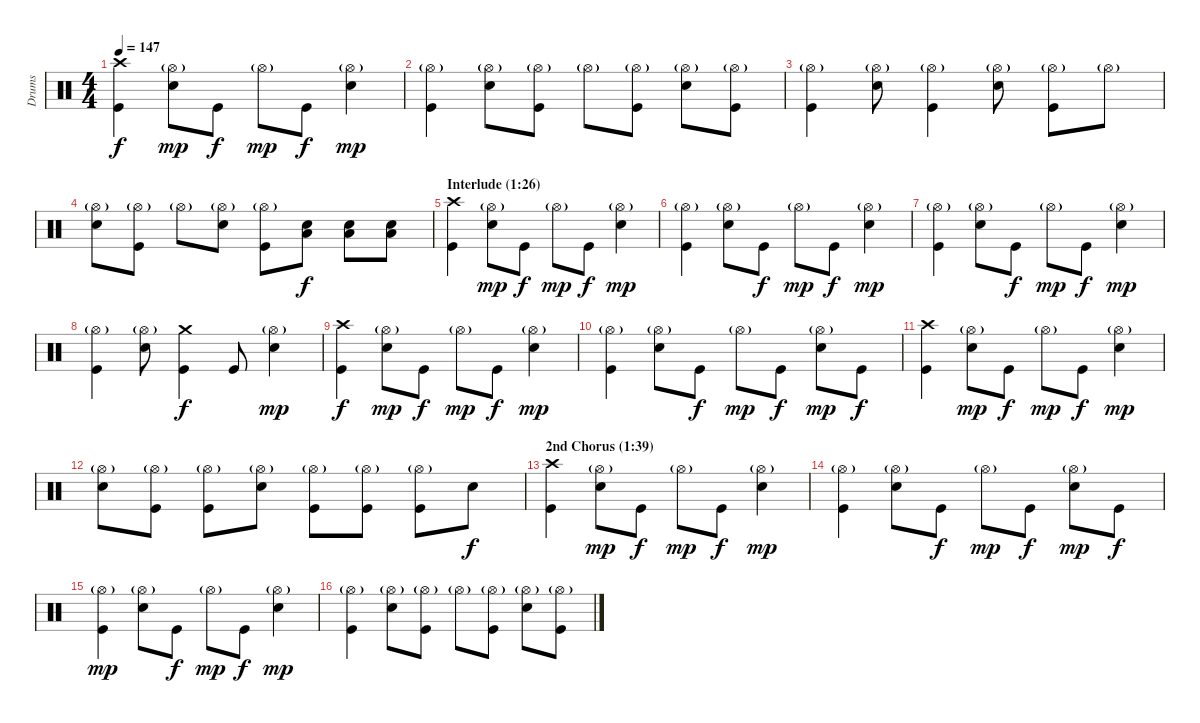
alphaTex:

\track ("Drums" "Drums") {instrument percussion}
\staff {score}
\articulation defaults
\ts (4 4)
\tempo 147
\clef neutral
\ks c
("Crash high (hit)" "Kick (hit)").4{dy f} ("Hi-Hat (open)"{g} "Snare (hit) 2").8{dy mp} "Kick (hit)".8{dy f} "Hi-Hat (open)"{g}.8{dy mp} "Kick (hit)".8{dy f} ("Hi-Hat (open)"{g} "Snare (hit) 2").4{dy mp} |
("Hi-Hat (open)"{g} "Kick (hit)").4 ("Hi-Hat (open)"{g} "Snare (hit) 2").8 ("Hi-Hat (open)"{g} "Kick (hit)").8 "Hi-Hat (open)"{g}.8 ("Hi-Hat (open)"{g} "Kick (hit)").8 ("Hi-Hat (open)"{g} "Snare (hit) 2").8 ("Hi-Hat (open)"{g} "Kick (hit)").8 |
("Hi-Hat (open)"{g} "Kick (hit)").4 ("Hi-Hat (open)"{g} "Snare (hit) 2").8 ("Hi-Hat (open)"{g} "Kick (hit)").4 ("Hi-Hat (open)"{g} "Snare (hit) 2").8 ("Hi-Hat (open)"{g} "Kick (hit)").8 "Hi-Hat (open)"{g}.8 |
("Hi-Hat (open)"{g} "Snare (hit) 2").8 ("Hi-Hat (open)"{g} "Kick (hit)").8 "Hi-Hat (open)"{g}.8 ("Hi-Hat (open)"{g} "Snare (hit) 2").8 ("Hi-Hat (open)"{g} "Kick (hit)").8 ("Snare (hit) 2" "Low Floor Tom (hit)").8{dy f} ("Snare (hit) 2" "Low Floor Tom (hit)").8 ("Snare (hit) 2" "Low Floor Tom (hit)").8 |
\section ("" "Interlude (1:26)")
("Crash high (hit)" "Kick (hit)").4 ("Hi-Hat (open)"{g} "Snare (hit) 2").8{dy mp} "Kick (hit)".8{dy f} "Hi-Hat (open)"{g}.8{dy mp} "Kick (hit)".8{dy f} ("Hi-Hat (open)"{g} "Snare (hit) 2").4{dy mp} |
("Hi-Hat (open)"{g} "Kick (hit)").4 ("Hi-Hat (open)"{g} "Snare (hit) 2").8 "Kick (hit)".8{dy f} "Hi-Hat (open)"{g}.8{dy mp} "Kick (hit)".8{dy f} ("Hi-Hat (open)"{g} "Snare (hit) 2").4{dy mp} |
("Hi-Hat (open)"{g} "Kick (hit)").4 ("Hi-Hat (open)"{g} "Snare (hit) 2").8 "Kick (hit)".8{dy f} "Hi-Hat (open)"{g}.8{dy mp} "Kick (hit)".8{dy f} ("Hi-Hat (open)"{g} "Snare (hit) 2").4{dy mp} |
("Hi-Hat (open)"{g} "Kick (hit)").4 ("Hi-Hat (open)"{g} "Snare (hit) 2").8 ("Crash medium (hit)" "Kick (hit)").4{dy f} "Kick (hit)".8 ("Hi-Hat (open)"{g} "Snare (hit) 2").4{dy mp} |
("Crash high (hit)" "Kick (hit)").4{dy f} ("Hi-Hat (open)"{g} "Snare (hit) 2").8{dy mp} "Kick (hit)".8{dy f} "Hi-Hat (open)"{g}.8{dy mp} "Kick (hit)".8{dy f} ("Hi-Hat (open)"{g} "Snare (hit) 2").4{dy mp} |
("Hi-Hat (open)"{g} "Kick (hit)").4 ("Hi-Hat (open)"{g} "Snare (hit) 2").8 "Kick (hit)".8{dy f} "Hi-Hat (open)"{g}.8{dy mp} "Kick (hit)".8{dy f} ("Hi-Hat (open)"{g} "Snare (hit) 2").8{dy mp} "Kick (hit)".8{dy f} |
("Crash high (hit)" "Kick (hit)").4 ("Hi-Hat (open)"{g} "Snare (hit) 2").8{dy mp} "Kick (hit)".8{dy f} "Hi-Hat (open)"{g}.8{dy mp} "Kick (hit)".8{dy f} ("Hi-Hat (open)"{g} "Snare (hit) 2").4{dy mp} |
("Hi-Hat (open)"{g} "Snare (hit) 2").8 ("Hi-Hat (open)"{g} "Kick (hit)").8 ("Hi-Hat (open)"{g} "Kick (hit)").8 ("Hi-Hat (open)"{g} "Snare (hit) 2").8 ("Hi-Hat (open)"{g} "Kick (hit)").8 ("Hi-Hat (open)"{g} "Kick (hit)").8 ("Hi-Hat (open)"{g} "Kick (hit)").8 "Snare (hit) 2".8{dy f} |
\section ("" "2nd Chorus (1:39)")
("Crash high (hit)" "Kick (hit)").4 ("Hi-Hat (open)"{g} "Snare (hit) 2").8{dy mp} "Kick (hit)".8{dy f} "Hi-Hat (open)"{g}.8{dy mp} "Kick (hit)".8{dy f} ("Hi-Hat (open)"{g} "Snare (hit) 2").4{dy mp} |
("Hi-Hat (open)"{g} "Kick (hit)").4 ("Hi-Hat (open)"{g} "Snare (hit) 2").8 "Kick (hit)".8{dy f} "Hi-Hat (open)"{g}.8{dy mp} "Kick (hit)".8{dy f} ("Hi-Hat (open)"{g} "Snare (hit) 2").8{dy mp} "Kick (hit)".8{dy f} |
("Hi-Hat (open)"{g} "Kick (hit)").4{dy mp} ("Hi-Hat (open)"{g} "Snare (hit) 2").8 "Kick (hit)".8{dy f} "Hi-Hat (open)"{g}.8{dy mp} "Kick (hit)".8{dy f} ("Hi-Hat (open)"{g} "Snare (hit) 2").4{dy mp} |
("Hi-Hat (open)"{g} "Kick (hit)").4 ("Hi-Hat (open)"{g} "Snare (hit) 2").8 ("Hi-Hat (open)"{g} "Kick (hit)").8 "Hi-Hat (open)"{g}.8 ("Hi-Hat (open)"{g} "Kick (hit)").8 ("Hi-Hat (open)"{g} "Snare (hit) 2").8 ("Hi-Hat (open)"{g} "Kick (hit)").8
